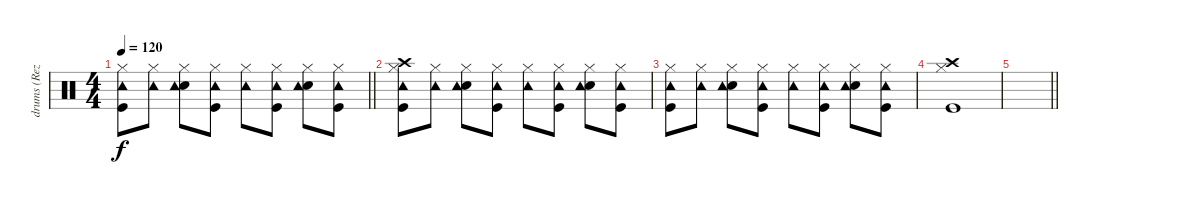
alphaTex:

\track ("drums (Reza)" "drums (Rez") {instrument percussion}
\staff {score}
\articulation defaults
\ts (4 4)
\tempo 120
\clef neutral
\barLineRight lightlight
\ks c
("Hi-Hat (closed)" "Kick (hit)" "Tambourine (hit)").8{dy f} ("Hi-Hat (closed)" "Tambourine (hit)").8 ("Hi-Hat (closed)" "Snare (hit) 2" "Tambourine (hit)").8 ("Hi-Hat (closed)" "Kick (hit)" "Tambourine (hit)").8 ("Hi-Hat (closed)" "Tambourine (hit)").8 ("Hi-Hat (closed)" "Kick (hit)" "Tambourine (hit)").8 ("Hi-Hat (closed)" "Snare (hit) 2" "Tambourine (hit)").8 ("Hi-Hat (closed)" "Kick (hit)" "Tambourine (hit)").8 |
("Hi-Hat (closed)" "Kick (hit)" "Crash high (hit)" "Tambourine (hit)").8 ("Hi-Hat (closed)" "Tambourine (hit)").8 ("Hi-Hat (closed)" "Snare (hit) 2" "Tambourine (hit)").8 ("Hi-Hat (closed)" "Kick (hit)" "Tambourine (hit)").8 ("Hi-Hat (closed)" "Tambourine (hit)").8 ("Hi-Hat (closed)" "Kick (hit)" "Tambourine (hit)").8 ("Hi-Hat (closed)" "Snare (hit) 2" "Tambourine (hit)").8 ("Hi-Hat (closed)" "Kick (hit)" "Tambourine (hit)").8 |
("Hi-Hat (closed)" "Kick (hit)" "Tambourine (hit)").8 ("Hi-Hat (closed)" "Tambourine (hit)").8 ("Hi-Hat (closed)" "Snare (hit) 2" "Tambourine (hit)").8 ("Hi-Hat (closed)" "Kick (hit)" "Tambourine (hit)").8 ("Hi-Hat (closed)" "Tambourine (hit)").8 ("Hi-Hat (closed)" "Kick (hit)" "Tambourine (hit)").8 ("Hi-Hat (closed)" "Snare (hit) 2" "Tambourine (hit)").8 ("Hi-Hat (closed)" "Kick (hit)" "Tambourine (hit)").8 |
("Hi-Hat (closed)" "Kick (hit)" "Crash high (hit)").1 |
\barLineRight lightlight
